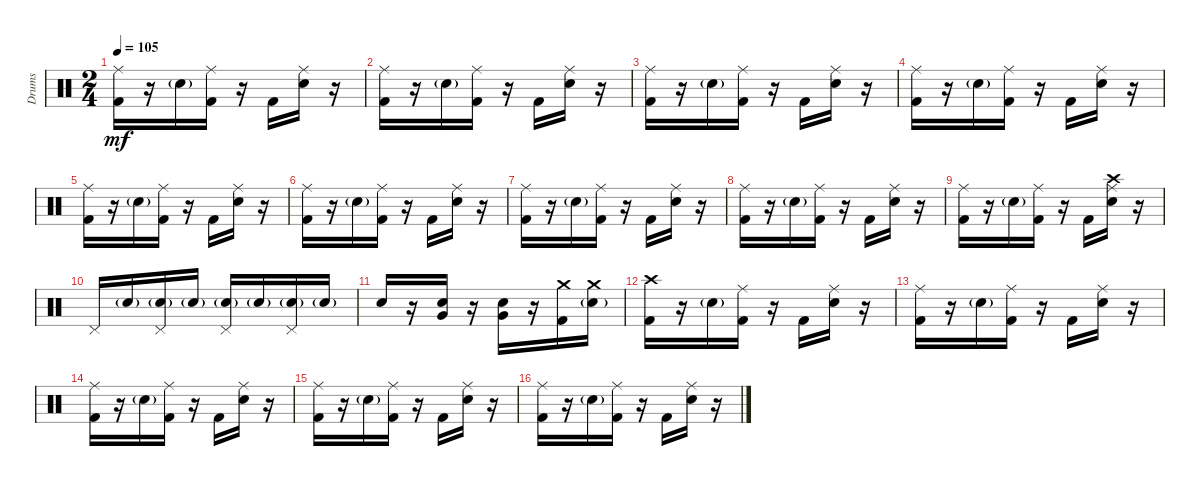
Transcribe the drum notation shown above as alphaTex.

\defaultSystemsLayout 4
\bracketExtendMode groupsimilarinstruments
\otherSystemsTrackNameOrientation horizontal
\track ("Godd" "Drums") {instrument percussion}
\staff {score}
\articulation defaults
\ts (2 4)
\tempo 105
\clef neutral
\ks c
("Ride (middle)" "Kick (hit) 2").16{dy mf} r.16 "Snare (hit) 2"{g}.16 ("Kick (hit) 2" "Ride (middle)").16 r.16 "Kick (hit) 2".16 ("Snare (hit) 2" "Ride (middle)").16 r.16 |
("Ride (middle)" "Kick (hit) 2").16 r.16 "Snare (hit) 2"{g}.16 ("Kick (hit) 2" "Ride (middle)").16 r.16 "Kick (hit) 2".16 ("Snare (hit) 2" "Ride (middle)").16 r.16 |
("Ride (middle)" "Kick (hit) 2").16 r.16 "Snare (hit) 2"{g}.16 ("Kick (hit) 2" "Ride (middle)").16 r.16 "Kick (hit) 2".16 ("Snare (hit) 2" "Ride (middle)").16 r.16 |
("Ride (middle)" "Kick (hit) 2").16 r.16 "Snare (hit) 2"{g}.16 ("Kick (hit) 2" "Ride (middle)").16 r.16 "Kick (hit) 2".16 ("Snare (hit) 2" "Ride (middle)").16 r.16 |
("Ride (middle)" "Kick (hit) 2").16 r.16 "Snare (hit) 2"{g}.16 ("Kick (hit) 2" "Ride (middle)").16 r.16 "Kick (hit) 2".16 ("Snare (hit) 2" "Ride (middle)").16 r.16 |
("Ride (middle)" "Kick (hit) 2").16 r.16 "Snare (hit) 2"{g}.16 ("Kick (hit) 2" "Ride (middle)").16 r.16 "Kick (hit) 2".16 ("Snare (hit) 2" "Ride (middle)").16 r.16 |
("Ride (middle)" "Kick (hit) 2").16 r.16 "Snare (hit) 2"{g}.16 ("Kick (hit) 2" "Ride (middle)").16 r.16 "Kick (hit) 2".16 ("Snare (hit) 2" "Ride (middle)").16 r.16 |
("Ride (middle)" "Kick (hit) 2").16 r.16 "Snare (hit) 2"{g}.16 ("Kick (hit) 2" "Ride (middle)").16 r.16 "Kick (hit) 2".16 ("Snare (hit) 2" "Ride (middle)").16 r.16 |
("Ride (middle)" "Kick (hit) 2").16 r.16 "Snare (hit) 2"{g}.16 ("Kick (hit) 2" "Ride (middle)").16 r.16 "Kick (hit) 2".16 ("Snare (hit) 2" "Ride (middle)" "Crash high (hit)").16 r.16 |
"Pedal Hi-Hat (hit)".16 "Snare (hit) 2"{g}.16 ("Snare (hit) 2"{g} "Pedal Hi-Hat (hit)").16 "Snare (hit) 2"{g}.16 ("Pedal Hi-Hat (hit)" "Snare (hit) 2"{g}).16 "Snare (hit) 2"{g}.16 ("Snare (hit) 2"{g} "Pedal Hi-Hat (hit)").16 "Snare (hit) 2"{g}.16 |
"Snare (hit) 2".16 r.16 ("Snare (hit) 2" "Very Low Tom (hit)").16 r.16 ("Snare (hit) 2" "Very Low Tom (hit)").16 r.16 ("Kick (hit) 2" "Crash medium (hit)").16 ("Crash medium (hit)" "Snare (hit) 2"{g}).16 |
("Kick (hit) 2" "Crash high (hit)").16 r.16 "Snare (hit) 2"{g}.16 ("Kick (hit) 2" "Ride (middle)").16 r.16 "Kick (hit) 2".16 ("Ride (middle)" "Snare (hit) 2").16 r.16 |
("Ride (middle)" "Kick (hit) 2").16 r.16 "Snare (hit) 2"{g}.16 ("Kick (hit) 2" "Ride (middle)").16 r.16 "Kick (hit) 2".16 ("Snare (hit) 2" "Ride (middle)").16 r.16 |
("Ride (middle)" "Kick (hit) 2").16 r.16 "Snare (hit) 2"{g}.16 ("Kick (hit) 2" "Ride (middle)").16 r.16 "Kick (hit) 2".16 ("Snare (hit) 2" "Ride (middle)").16 r.16 |
("Ride (middle)" "Kick (hit) 2").16 r.16 "Snare (hit) 2"{g}.16 ("Kick (hit) 2" "Ride (middle)").16 r.16 "Kick (hit) 2".16 ("Snare (hit) 2" "Ride (middle)").16 r.16 |
("Ride (middle)" "Kick (hit) 2").16 r.16 "Snare (hit) 2"{g}.16 ("Kick (hit) 2" "Ride (middle)").16 r.16 "Kick (hit) 2".16 ("Snare (hit) 2" "Ride (middle)").16 r.16
